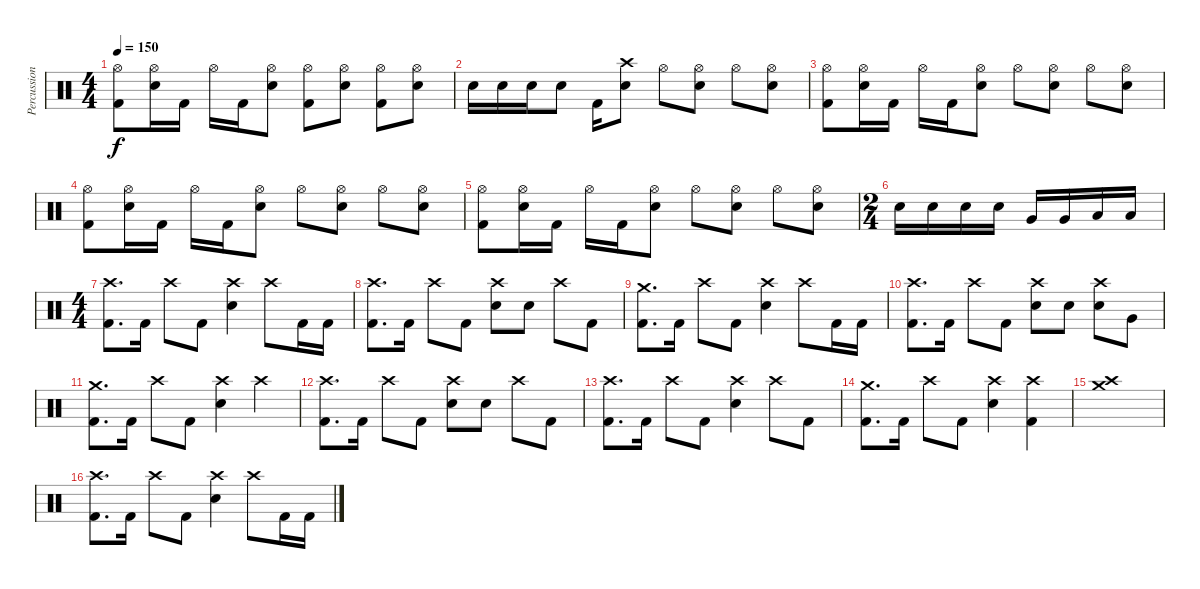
\track ("Percussion" "Percussion") {instrument percussion}
\staff {score}
\articulation defaults
\ts (4 4)
\tempo 150
\clef neutral
\ks c
("Hi-Hat (open)" "Kick (hit) 2").8{dy f} ("Hi-Hat (open)" "Electric Snare (hit)").16 "Kick (hit) 2".16 "Hi-Hat (open)".16 "Kick (hit) 2".16 ("Hi-Hat (open)" "Electric Snare (hit)").8 ("Hi-Hat (open)" "Kick (hit) 2").8 ("Hi-Hat (open)" "Electric Snare (hit)").8 ("Hi-Hat (open)" "Kick (hit) 2").8 ("Hi-Hat (open)" "Electric Snare (hit)").8 |
"Electric Snare (hit)".16 "Electric Snare (hit)".16 "Electric Snare (hit)".16 "Electric Snare (hit)".8 "Kick (hit) 2".16 ("Crash high (hit)" "Electric Snare (hit)").8 "Hi-Hat (open)".8 ("Hi-Hat (open)" "Electric Snare (hit)").8 "Hi-Hat (open)".8 ("Hi-Hat (open)" "Electric Snare (hit)").8 |
("Hi-Hat (open)" "Kick (hit) 2").8 ("Hi-Hat (open)" "Electric Snare (hit)").16 "Kick (hit) 2".16 "Hi-Hat (open)".16 "Kick (hit) 2".16 ("Hi-Hat (open)" "Electric Snare (hit)").8 "Hi-Hat (open)".8 ("Hi-Hat (open)" "Electric Snare (hit)").8 "Hi-Hat (open)".8 ("Hi-Hat (open)" "Electric Snare (hit)").8 |
("Hi-Hat (open)" "Kick (hit) 2").8 ("Hi-Hat (open)" "Electric Snare (hit)").16 "Kick (hit) 2".16 "Hi-Hat (open)".16 "Kick (hit) 2".16 ("Hi-Hat (open)" "Electric Snare (hit)").8 "Hi-Hat (open)".8 ("Hi-Hat (open)" "Electric Snare (hit)").8 "Hi-Hat (open)".8 ("Hi-Hat (open)" "Electric Snare (hit)").8 |
("Hi-Hat (open)" "Kick (hit) 2").8 ("Hi-Hat (open)" "Electric Snare (hit)").16 "Kick (hit) 2".16 "Hi-Hat (open)".16 "Kick (hit) 2".16 ("Hi-Hat (open)" "Electric Snare (hit)").8 "Hi-Hat (open)".8 ("Hi-Hat (open)" "Electric Snare (hit)").8 "Hi-Hat (open)".8 ("Hi-Hat (open)" "Electric Snare (hit)").8 |
\ts (2 4)
"Electric Snare (hit)".16 "Electric Snare (hit)".16 "Electric Snare (hit)".16 "Electric Snare (hit)".16 "Very Low Tom (hit)".16 "Very Low Tom (hit)".16 "Low Floor Tom (hit)".16 "Low Floor Tom (hit)".16 |
\ts (4 4)
("Crash high (hit)" "Kick (hit) 2").8{d} "Kick (hit) 2".16 "Crash high (hit)".8 "Kick (hit) 2".8 ("Crash high (hit)" "Electric Snare (hit)").4 "Crash high (hit)".8 "Kick (hit) 2".16 "Kick (hit) 2".16 |
("Crash high (hit)" "Kick (hit) 2").8{d} "Kick (hit) 2".16 "Crash high (hit)".8 "Kick (hit) 2".8 ("Crash high (hit)" "Electric Snare (hit)").8 "Electric Snare (hit)".8 "Crash high (hit)".8 "Kick (hit) 2".8 |
("Crash medium (hit)" "Kick (hit) 2").8{d} "Kick (hit) 2".16 "Crash high (hit)".8 "Kick (hit) 2".8 ("Crash high (hit)" "Electric Snare (hit)").4 "Crash high (hit)".8 "Kick (hit) 2".16 "Kick (hit) 2".16 |
("Crash high (hit)" "Kick (hit) 2").8{d} "Kick (hit) 2".16 "Crash high (hit)".8 "Kick (hit) 2".8 ("Crash high (hit)" "Electric Snare (hit)").8 "Electric Snare (hit)".8 ("Crash high (hit)" "Electric Snare (hit)").8 "Very Low Tom (hit)".8 |
("Crash medium (hit)" "Kick (hit) 2").8{d} "Kick (hit) 2".16 "Crash high (hit)".8 "Kick (hit) 2".8 ("Crash high (hit)" "Electric Snare (hit)").4 "Crash high (hit)".4 |
("Crash high (hit)" "Kick (hit) 2").8{d} "Kick (hit) 2".16 "Crash high (hit)".8 "Kick (hit) 2".8 ("Crash high (hit)" "Electric Snare (hit)").8 "Electric Snare (hit)".8 "Crash high (hit)".8 "Kick (hit) 2".8 |
("Crash high (hit)" "Kick (hit) 2").8{d} "Kick (hit) 2".16 "Crash high (hit)".8 "Kick (hit) 2".8 ("Crash high (hit)" "Electric Snare (hit)").4 "Crash high (hit)".8 "Kick (hit) 2".8 |
("Crash medium (hit)" "Kick (hit) 2").8{d} "Kick (hit) 2".16 "Crash high (hit)".8 "Kick (hit) 2".8 ("Crash high (hit)" "Electric Snare (hit)").4 ("Crash high (hit)" "Kick (hit) 2").4 |
("Crash high (hit)" "Crash medium (hit)").1 |
("Crash high (hit)" "Kick (hit) 2").8{d} "Kick (hit) 2".16 "Crash high (hit)".8 "Kick (hit) 2".8 ("Crash high (hit)" "Electric Snare (hit)").4 "Crash high (hit)".8 "Kick (hit) 2".16 "Kick (hit) 2".16
